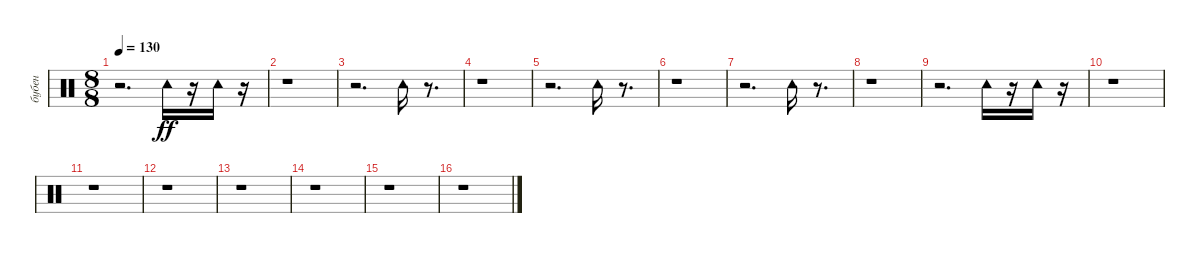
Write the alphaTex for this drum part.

\track ("бубен" "бубен") {instrument percussion}
\staff {score}
\articulation defaults
\ts (8 8)
\tempo 130
\clef neutral
\ks c
r.2{d dy ff} "Tambourine (hit)".16 r.16 "Tambourine (hit)".16 r.16 |
r.1 |
r.2{d} "Tambourine (hit)".16 r.8{d} |
r.1 |
r.2{d} "Tambourine (hit)".16 r.8{d} |
r.1 |
r.2{d} "Tambourine (hit)".16 r.8{d} |
r.1 |
r.2{d} "Tambourine (hit)".16 r.16 "Tambourine (hit)".16 r.16 |
r.1 |
r.1 |
r.1 |
r.1 |
r.1 |
r.1 |
r.1
